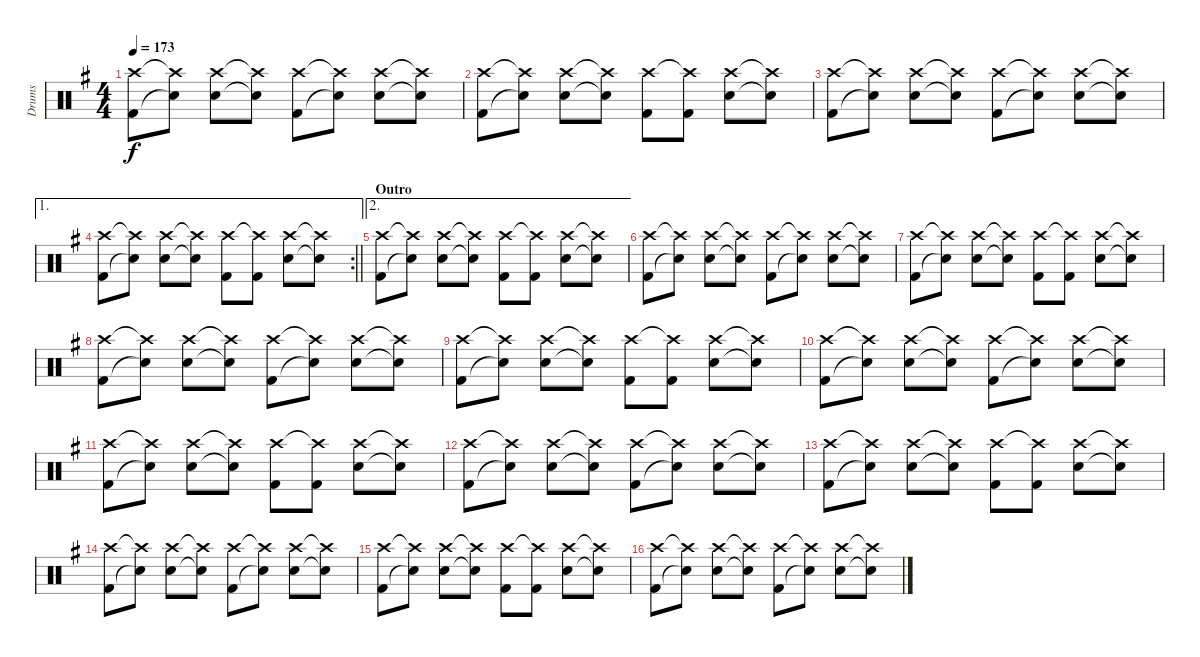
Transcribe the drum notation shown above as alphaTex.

\track ("Drums" "Drums") {instrument percussion}
\staff {score}
\articulation defaults
\ts (4 4)
\tempo 173
\clef neutral
\ks g
("Kick (hit) 2" "Crash high (hit)").8{dy f} ("Snare (hit)"{t} "Crash high (hit)"{t}).8 ("Snare (hit) 2" "Crash high (hit)").8 ("Snare (hit)"{t} "Crash high (hit)"{t}).8 ("Kick (hit) 2" "Crash high (hit)").8 ("Snare (hit)"{t} "Crash high (hit)"{t}).8 ("Snare (hit) 2" "Crash high (hit)").8 ("Snare (hit)"{t} "Crash high (hit)"{t}).8 |
("Kick (hit) 2" "Crash high (hit)").8 ("Snare (hit)"{t} "Crash high (hit)"{t}).8 ("Snare (hit) 2" "Crash high (hit)").8 ("Snare (hit)"{t} "Crash high (hit)"{t}).8 ("Kick (hit) 2" "Crash high (hit)").8 ("Kick (hit) 2" "Crash high (hit)"{t}).8 ("Snare (hit) 2" "Crash high (hit)").8 ("Snare (hit)"{t} "Crash high (hit)"{t}).8 |
("Kick (hit) 2" "Crash high (hit)").8 ("Snare (hit)"{t} "Crash high (hit)"{t}).8 ("Snare (hit) 2" "Crash high (hit)").8 ("Snare (hit)"{t} "Crash high (hit)"{t}).8 ("Kick (hit) 2" "Crash high (hit)").8 ("Snare (hit)"{t} "Crash high (hit)"{t}).8 ("Snare (hit) 2" "Crash high (hit)").8 ("Snare (hit)"{t} "Crash high (hit)"{t}).8 |
\ae 1
\rc 2
\barLineRight lightlight
("Kick (hit) 2" "Crash high (hit)").8 ("Snare (hit)"{t} "Crash high (hit)"{t}).8 ("Snare (hit) 2" "Crash high (hit)").8 ("Snare (hit)"{t} "Crash high (hit)"{t}).8 ("Kick (hit) 2" "Crash high (hit)").8 ("Kick (hit) 2" "Crash high (hit)"{t}).8 ("Snare (hit) 2" "Crash high (hit)").8 ("Snare (hit)"{t} "Crash high (hit)"{t}).8 |
\ae 2
\section ("" "Outro")
("Kick (hit) 2" "Crash high (hit)").8 ("Snare (hit)"{t} "Crash high (hit)"{t}).8 ("Snare (hit) 2" "Crash high (hit)").8 ("Snare (hit)"{t} "Crash high (hit)"{t}).8 ("Kick (hit) 2" "Crash high (hit)").8 ("Kick (hit) 2" "Crash high (hit)"{t}).8 ("Snare (hit) 2" "Crash high (hit)").8 ("Snare (hit)"{t} "Crash high (hit)"{t}).8 |
("Kick (hit) 2" "Crash high (hit)").8 ("Snare (hit)"{t} "Crash high (hit)"{t}).8 ("Snare (hit) 2" "Crash high (hit)").8 ("Snare (hit)"{t} "Crash high (hit)"{t}).8 ("Kick (hit) 2" "Crash high (hit)").8 ("Snare (hit)"{t} "Crash high (hit)"{t}).8 ("Snare (hit) 2" "Crash high (hit)").8 ("Snare (hit)"{t} "Crash high (hit)"{t}).8 |
("Kick (hit) 2" "Crash high (hit)").8 ("Snare (hit)"{t} "Crash high (hit)"{t}).8 ("Snare (hit) 2" "Crash high (hit)").8 ("Snare (hit)"{t} "Crash high (hit)"{t}).8 ("Kick (hit) 2" "Crash high (hit)").8 ("Kick (hit) 2" "Crash high (hit)"{t}).8 ("Snare (hit) 2" "Crash high (hit)").8 ("Snare (hit)"{t} "Crash high (hit)"{t}).8 |
("Kick (hit) 2" "Crash high (hit)").8 ("Snare (hit)"{t} "Crash high (hit)"{t}).8 ("Snare (hit) 2" "Crash high (hit)").8 ("Snare (hit)"{t} "Crash high (hit)"{t}).8 ("Kick (hit) 2" "Crash high (hit)").8 ("Snare (hit)"{t} "Crash high (hit)"{t}).8 ("Snare (hit) 2" "Crash high (hit)").8 ("Snare (hit)"{t} "Crash high (hit)"{t}).8 |
("Kick (hit) 2" "Crash high (hit)").8 ("Snare (hit)"{t} "Crash high (hit)"{t}).8 ("Snare (hit) 2" "Crash high (hit)").8 ("Snare (hit)"{t} "Crash high (hit)"{t}).8 ("Kick (hit) 2" "Crash high (hit)").8 ("Kick (hit) 2" "Crash high (hit)"{t}).8 ("Snare (hit) 2" "Crash high (hit)").8 ("Snare (hit)"{t} "Crash high (hit)"{t}).8 |
("Kick (hit) 2" "Crash high (hit)").8 ("Snare (hit)"{t} "Crash high (hit)"{t}).8 ("Snare (hit) 2" "Crash high (hit)").8 ("Snare (hit)"{t} "Crash high (hit)"{t}).8 ("Kick (hit) 2" "Crash high (hit)").8 ("Snare (hit)"{t} "Crash high (hit)"{t}).8 ("Snare (hit) 2" "Crash high (hit)").8 ("Snare (hit)"{t} "Crash high (hit)"{t}).8 |
("Kick (hit) 2" "Crash high (hit)").8 ("Snare (hit)"{t} "Crash high (hit)"{t}).8 ("Snare (hit) 2" "Crash high (hit)").8 ("Snare (hit)"{t} "Crash high (hit)"{t}).8 ("Kick (hit) 2" "Crash high (hit)").8 ("Kick (hit) 2" "Crash high (hit)"{t}).8 ("Snare (hit) 2" "Crash high (hit)").8 ("Snare (hit)"{t} "Crash high (hit)"{t}).8 |
("Kick (hit) 2" "Crash high (hit)").8 ("Snare (hit)"{t} "Crash high (hit)"{t}).8 ("Snare (hit) 2" "Crash high (hit)").8 ("Snare (hit)"{t} "Crash high (hit)"{t}).8 ("Kick (hit) 2" "Crash high (hit)").8 ("Snare (hit)"{t} "Crash high (hit)"{t}).8 ("Snare (hit) 2" "Crash high (hit)").8 ("Snare (hit)"{t} "Crash high (hit)"{t}).8 |
("Kick (hit) 2" "Crash high (hit)").8 ("Snare (hit)"{t} "Crash high (hit)"{t}).8 ("Snare (hit) 2" "Crash high (hit)").8 ("Snare (hit)"{t} "Crash high (hit)"{t}).8 ("Kick (hit) 2" "Crash high (hit)").8 ("Kick (hit) 2" "Crash high (hit)"{t}).8 ("Snare (hit) 2" "Crash high (hit)").8 ("Snare (hit)"{t} "Crash high (hit)"{t}).8 |
("Kick (hit) 2" "Crash high (hit)").8 ("Snare (hit)"{t} "Crash high (hit)"{t}).8 ("Snare (hit) 2" "Crash high (hit)").8 ("Snare (hit)"{t} "Crash high (hit)"{t}).8 ("Kick (hit) 2" "Crash high (hit)").8 ("Snare (hit)"{t} "Crash high (hit)"{t}).8 ("Snare (hit) 2" "Crash high (hit)").8 ("Snare (hit)"{t} "Crash high (hit)"{t}).8 |
("Kick (hit) 2" "Crash high (hit)").8 ("Snare (hit)"{t} "Crash high (hit)"{t}).8 ("Snare (hit) 2" "Crash high (hit)").8 ("Snare (hit)"{t} "Crash high (hit)"{t}).8 ("Kick (hit) 2" "Crash high (hit)").8 ("Kick (hit) 2" "Crash high (hit)"{t}).8 ("Snare (hit) 2" "Crash high (hit)").8 ("Snare (hit)"{t} "Crash high (hit)"{t}).8 |
("Kick (hit) 2" "Crash high (hit)").8 ("Snare (hit)"{t} "Crash high (hit)"{t}).8 ("Snare (hit) 2" "Crash high (hit)").8 ("Snare (hit)"{t} "Crash high (hit)"{t}).8 ("Kick (hit) 2" "Crash high (hit)").8 ("Snare (hit)"{t} "Crash high (hit)"{t}).8 ("Snare (hit) 2" "Crash high (hit)").8 ("Snare (hit)"{t} "Crash high (hit)"{t}).8
